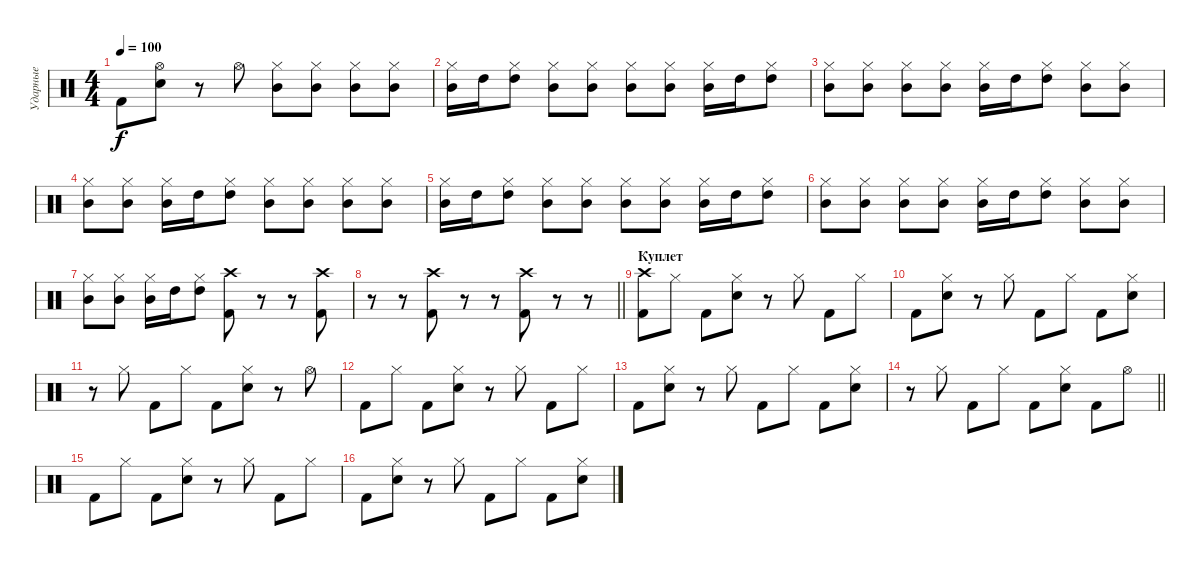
\track ("Ударные" "Ударные") {instrument percussion}
\staff {score}
\articulation defaults
\ts (4 4)
\tempo 100
\clef neutral
\ks c "Kick (hit) 2".8{dy f}
("Snare (hit) 2" "Hi-Hat (open)").8 r.8 "Hi-Hat (open)".8 ("Mid Tom (hit)" "Hi-Hat (closed)").8 ("Mid Tom (hit)" "Hi-Hat (closed)").8 ("Mid Tom (hit)" "Hi-Hat (closed)").8 ("Mid Tom (hit)" "Hi-Hat (closed)").8 |
("Mid Tom (hit)" "Hi-Hat (closed)").16 "High Tom (hit)".16 ("High Tom (hit)" "Hi-Hat (closed)").8 ("Mid Tom (hit)" "Hi-Hat (closed)").8 ("Mid Tom (hit)" "Hi-Hat (closed)").8 ("Mid Tom (hit)" "Hi-Hat (closed)").8 ("Mid Tom (hit)" "Hi-Hat (closed)").8 ("Mid Tom (hit)" "Hi-Hat (closed)").16 "High Tom (hit)".16 ("High Tom (hit)" "Hi-Hat (closed)").8 |
("Mid Tom (hit)" "Hi-Hat (closed)").8 ("Mid Tom (hit)" "Hi-Hat (closed)").8 ("Mid Tom (hit)" "Hi-Hat (closed)").8 ("Mid Tom (hit)" "Hi-Hat (closed)").8 ("Mid Tom (hit)" "Hi-Hat (closed)").16 "High Tom (hit)".16 ("High Tom (hit)" "Hi-Hat (closed)").8 ("Mid Tom (hit)" "Hi-Hat (closed)").8 ("Mid Tom (hit)" "Hi-Hat (closed)").8 |
("Mid Tom (hit)" "Hi-Hat (closed)").8 ("Mid Tom (hit)" "Hi-Hat (closed)").8 ("Mid Tom (hit)" "Hi-Hat (closed)").16 "High Tom (hit)".16 ("High Tom (hit)" "Hi-Hat (closed)").8 ("Mid Tom (hit)" "Hi-Hat (closed)").8 ("Mid Tom (hit)" "Hi-Hat (closed)").8 ("Mid Tom (hit)" "Hi-Hat (closed)").8 ("Mid Tom (hit)" "Hi-Hat (closed)").8 |
("Mid Tom (hit)" "Hi-Hat (closed)").16 "High Tom (hit)".16 ("High Tom (hit)" "Hi-Hat (closed)").8 ("Mid Tom (hit)" "Hi-Hat (closed)").8 ("Mid Tom (hit)" "Hi-Hat (closed)").8 ("Mid Tom (hit)" "Hi-Hat (closed)").8 ("Mid Tom (hit)" "Hi-Hat (closed)").8 ("Mid Tom (hit)" "Hi-Hat (closed)").16 "High Tom (hit)".16 ("High Tom (hit)" "Hi-Hat (closed)").8 |
("Mid Tom (hit)" "Hi-Hat (closed)").8 ("Mid Tom (hit)" "Hi-Hat (closed)").8 ("Mid Tom (hit)" "Hi-Hat (closed)").8 ("Mid Tom (hit)" "Hi-Hat (closed)").8 ("Mid Tom (hit)" "Hi-Hat (closed)").16 "High Tom (hit)".16 ("High Tom (hit)" "Hi-Hat (closed)").8 ("Mid Tom (hit)" "Hi-Hat (closed)").8 ("Mid Tom (hit)" "Hi-Hat (closed)").8 |
("Mid Tom (hit)" "Hi-Hat (closed)").8 ("Mid Tom (hit)" "Hi-Hat (closed)").8 ("Mid Tom (hit)" "Hi-Hat (closed)").16 "High Tom (hit)".16 ("High Tom (hit)" "Hi-Hat (closed)").8 ("Kick (hit) 2" "Crash high (hit)").8 r.8 r.8 ("Kick (hit) 2" "Crash high (hit)").8 |
\barLineRight lightlight
r.8 r.8 ("Kick (hit) 2" "Crash high (hit)").8 r.8 r.8 ("Kick (hit) 2" "Crash high (hit)").8 r.8 r.8 |
\section ("" "Куплет")
("Kick (hit) 2" "Crash high (hit)").8 "Hi-Hat (closed)".8 "Kick (hit) 2".8 ("Snare (hit) 2" "Hi-Hat (closed)").8 r.8 "Hi-Hat (closed)".8 "Kick (hit) 2".8 "Hi-Hat (closed)".8 |
"Kick (hit) 2".8 ("Snare (hit) 2" "Hi-Hat (closed)").8 r.8 "Hi-Hat (closed)".8 "Kick (hit) 2".8 "Hi-Hat (closed)".8 "Kick (hit) 2".8 ("Snare (hit) 2" "Hi-Hat (closed)").8 |
r.8 "Hi-Hat (closed)".8 "Kick (hit) 2".8 "Hi-Hat (closed)".8 "Kick (hit) 2".8 ("Snare (hit) 2" "Hi-Hat (closed)").8 r.8 "Hi-Hat (open)".8 |
"Kick (hit) 2".8 "Hi-Hat (closed)".8 "Kick (hit) 2".8 ("Snare (hit) 2" "Hi-Hat (closed)").8 r.8 "Hi-Hat (closed)".8 "Kick (hit) 2".8 "Hi-Hat (closed)".8 |
"Kick (hit) 2".8 ("Snare (hit) 2" "Hi-Hat (closed)").8 r.8 "Hi-Hat (closed)".8 "Kick (hit) 2".8 "Hi-Hat (closed)".8 "Kick (hit) 2".8 ("Snare (hit) 2" "Hi-Hat (closed)").8 |
\barLineRight lightlight
r.8 "Hi-Hat (closed)".8 "Kick (hit) 2".8 "Hi-Hat (closed)".8 "Kick (hit) 2".8 ("Snare (hit) 2" "Hi-Hat (closed)").8 "Kick (hit) 2".8 "Hi-Hat (open)".8 |
"Kick (hit) 2".8 "Hi-Hat (closed)".8 "Kick (hit) 2".8 ("Snare (hit) 2" "Hi-Hat (closed)").8 r.8 "Hi-Hat (closed)".8 "Kick (hit) 2".8 "Hi-Hat (closed)".8 |
"Kick (hit) 2".8 ("Snare (hit) 2" "Hi-Hat (closed)").8 r.8 "Hi-Hat (closed)".8 "Kick (hit) 2".8 "Hi-Hat (closed)".8 "Kick (hit) 2".8 ("Snare (hit) 2" "Hi-Hat (closed)").8
